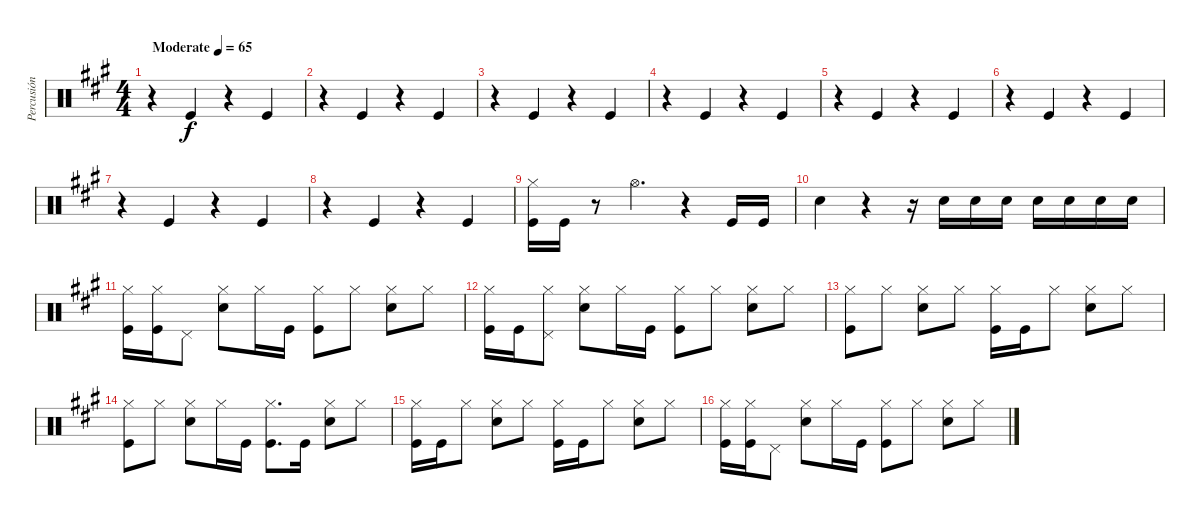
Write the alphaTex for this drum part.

\track ("Percusión" "Percusión") {instrument percussion}
\staff {score}
\articulation defaults
\ts (4 4)
\tempo (65 "Moderate")
\clef neutral
\ks f#minor
r.4{dy f} "Kick (hit)".4 r.4 "Kick (hit)".4 |
r.4 "Kick (hit)".4 r.4 "Kick (hit)".4 |
r.4 "Kick (hit)".4 r.4 "Kick (hit)".4 |
r.4 "Kick (hit)".4 r.4 "Kick (hit)".4 |
r.4 "Kick (hit)".4 r.4 "Kick (hit)".4 |
r.4 "Kick (hit)".4 r.4 "Kick (hit)".4 |
r.4 "Kick (hit)".4 r.4 "Kick (hit)".4 |
r.4 "Kick (hit)".4 r.4 "Kick (hit)".4 |
("Hi-Hat (closed)" "Kick (hit)").16 "Kick (hit)".16 r.8 "Hi-Hat (open)".4{d} r.4 "Kick (hit)".16 "Kick (hit)".16 |
"Snare (hit) 2".4 r.4 r.16 "Snare (hit) 2".16 "Snare (hit) 2".16 "Snare (hit) 2".16 "Snare (hit) 2".16 "Snare (hit) 2".16 "Snare (hit) 2".16 "Snare (hit) 2".16 |
("Hi-Hat (closed)" "Kick (hit)").16 ("Hi-Hat (closed)" "Kick (hit)").16 "Pedal Hi-Hat (hit)".8 ("Hi-Hat (closed)" "Snare (hit) 2").8 "Hi-Hat (closed)".16 "Kick (hit)".16 ("Hi-Hat (closed)" "Kick (hit)").8 "Hi-Hat (closed)".8 ("Hi-Hat (closed)" "Snare (hit) 2").8 "Hi-Hat (closed)".8 |
("Hi-Hat (closed)" "Kick (hit)").16 "Kick (hit)".16 ("Hi-Hat (closed)" "Pedal Hi-Hat (hit)").8 ("Hi-Hat (closed)" "Snare (hit) 2").8 "Hi-Hat (closed)".16 "Kick (hit)".16 ("Hi-Hat (closed)" "Kick (hit)").8 "Hi-Hat (closed)".8 ("Hi-Hat (closed)" "Snare (hit) 2").8 "Hi-Hat (closed)".8 |
("Hi-Hat (closed)" "Kick (hit)").8 "Hi-Hat (closed)".8 ("Hi-Hat (closed)" "Snare (hit) 2").8 "Hi-Hat (closed)".8 ("Hi-Hat (closed)" "Kick (hit)").16 "Kick (hit)".16 "Hi-Hat (closed)".8 ("Hi-Hat (closed)" "Snare (hit) 2").8 "Hi-Hat (closed)".8 |
("Hi-Hat (closed)" "Kick (hit)").8 "Hi-Hat (closed)".8 ("Hi-Hat (closed)" "Snare (hit) 2").8 "Hi-Hat (closed)".16 "Kick (hit)".16 ("Hi-Hat (closed)" "Kick (hit)").8{d} "Kick (hit)".16 ("Hi-Hat (closed)" "Snare (hit) 2").8 "Hi-Hat (closed)".8 |
("Hi-Hat (closed)" "Kick (hit)").16 "Kick (hit)".16 "Hi-Hat (closed)".8 ("Hi-Hat (closed)" "Snare (hit) 2").8 "Hi-Hat (closed)".8 ("Hi-Hat (closed)" "Kick (hit)").16 "Kick (hit)".16 "Hi-Hat (closed)".8 ("Hi-Hat (closed)" "Snare (hit) 2").8 "Hi-Hat (closed)".8 |
("Hi-Hat (closed)" "Kick (hit)").16 ("Hi-Hat (closed)" "Kick (hit)").16 "Pedal Hi-Hat (hit)".8 ("Hi-Hat (closed)" "Snare (hit) 2").8 "Hi-Hat (closed)".16 "Kick (hit)".16 ("Hi-Hat (closed)" "Kick (hit)").8 "Hi-Hat (closed)".8 ("Hi-Hat (closed)" "Snare (hit) 2").8 "Hi-Hat (closed)".8
